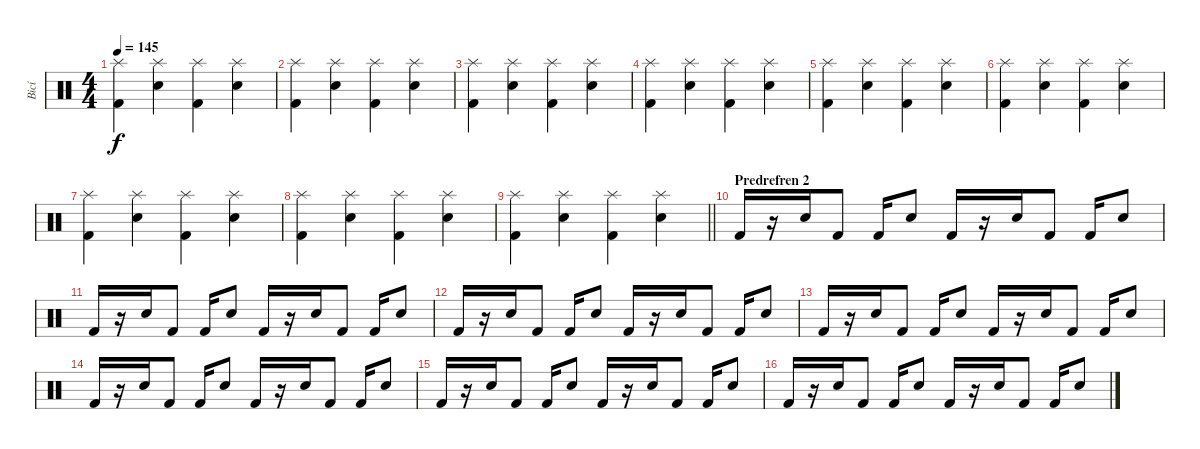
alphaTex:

\track ("Bicí" "Bicí") {instrument percussion}
\staff {score}
\articulation defaults
\ts (4 4)
\tempo 145
\clef neutral
\ks c
("Kick (hit) 2" "Splash (hit)").4{dy f} ("Electric Snare (hit)" "Splash (hit)").4 ("Kick (hit) 2" "Splash (hit)").4 ("Electric Snare (hit)" "Splash (hit)").4 |
("Kick (hit) 2" "Splash (hit)").4 ("Electric Snare (hit)" "Splash (hit)").4 ("Kick (hit) 2" "Splash (hit)").4 ("Electric Snare (hit)" "Splash (hit)").4 |
("Kick (hit) 2" "Splash (hit)").4 ("Electric Snare (hit)" "Splash (hit)").4 ("Kick (hit) 2" "Splash (hit)").4 ("Electric Snare (hit)" "Splash (hit)").4 |
("Kick (hit) 2" "Splash (hit)").4 ("Electric Snare (hit)" "Splash (hit)").4 ("Kick (hit) 2" "Splash (hit)").4 ("Electric Snare (hit)" "Splash (hit)").4 |
("Kick (hit) 2" "Splash (hit)").4 ("Electric Snare (hit)" "Splash (hit)").4 ("Kick (hit) 2" "Splash (hit)").4 ("Electric Snare (hit)" "Splash (hit)").4 |
("Kick (hit) 2" "Splash (hit)").4 ("Electric Snare (hit)" "Splash (hit)").4 ("Kick (hit) 2" "Splash (hit)").4 ("Electric Snare (hit)" "Splash (hit)").4 |
("Kick (hit) 2" "Splash (hit)").4 ("Electric Snare (hit)" "Splash (hit)").4 ("Kick (hit) 2" "Splash (hit)").4 ("Electric Snare (hit)" "Splash (hit)").4 |
("Kick (hit) 2" "Splash (hit)").4 ("Electric Snare (hit)" "Splash (hit)").4 ("Kick (hit) 2" "Splash (hit)").4 ("Electric Snare (hit)" "Splash (hit)").4 |
\barLineRight lightlight
("Kick (hit) 2" "Splash (hit)").4 ("Electric Snare (hit)" "Splash (hit)").4 ("Kick (hit) 2" "Splash (hit)").4 ("Electric Snare (hit)" "Splash (hit)").4 |
\section ("" "Predrefren 2")
"Kick (hit) 2".16 r.16 "Electric Snare (hit)".16 "Kick (hit) 2".8 "Kick (hit) 2".16 "Electric Snare (hit)".8 "Kick (hit) 2".16 r.16 "Electric Snare (hit)".16 "Kick (hit) 2".8 "Kick (hit) 2".16 "Electric Snare (hit)".8 |
"Kick (hit) 2".16 r.16 "Electric Snare (hit)".16 "Kick (hit) 2".8 "Kick (hit) 2".16 "Electric Snare (hit)".8 "Kick (hit) 2".16 r.16 "Electric Snare (hit)".16 "Kick (hit) 2".8 "Kick (hit) 2".16 "Electric Snare (hit)".8 |
"Kick (hit) 2".16 r.16 "Electric Snare (hit)".16 "Kick (hit) 2".8 "Kick (hit) 2".16 "Electric Snare (hit)".8 "Kick (hit) 2".16 r.16 "Electric Snare (hit)".16 "Kick (hit) 2".8 "Kick (hit) 2".16 "Electric Snare (hit)".8 |
"Kick (hit) 2".16 r.16 "Electric Snare (hit)".16 "Kick (hit) 2".8 "Kick (hit) 2".16 "Electric Snare (hit)".8 "Kick (hit) 2".16 r.16 "Electric Snare (hit)".16 "Kick (hit) 2".8 "Kick (hit) 2".16 "Electric Snare (hit)".8 |
"Kick (hit) 2".16 r.16 "Electric Snare (hit)".16 "Kick (hit) 2".8 "Kick (hit) 2".16 "Electric Snare (hit)".8 "Kick (hit) 2".16 r.16 "Electric Snare (hit)".16 "Kick (hit) 2".8 "Kick (hit) 2".16 "Electric Snare (hit)".8 |
"Kick (hit) 2".16 r.16 "Electric Snare (hit)".16 "Kick (hit) 2".8 "Kick (hit) 2".16 "Electric Snare (hit)".8 "Kick (hit) 2".16 r.16 "Electric Snare (hit)".16 "Kick (hit) 2".8 "Kick (hit) 2".16 "Electric Snare (hit)".8 |
"Kick (hit) 2".16 r.16 "Electric Snare (hit)".16 "Kick (hit) 2".8 "Kick (hit) 2".16 "Electric Snare (hit)".8 "Kick (hit) 2".16 r.16 "Electric Snare (hit)".16 "Kick (hit) 2".8 "Kick (hit) 2".16 "Electric Snare (hit)".8
